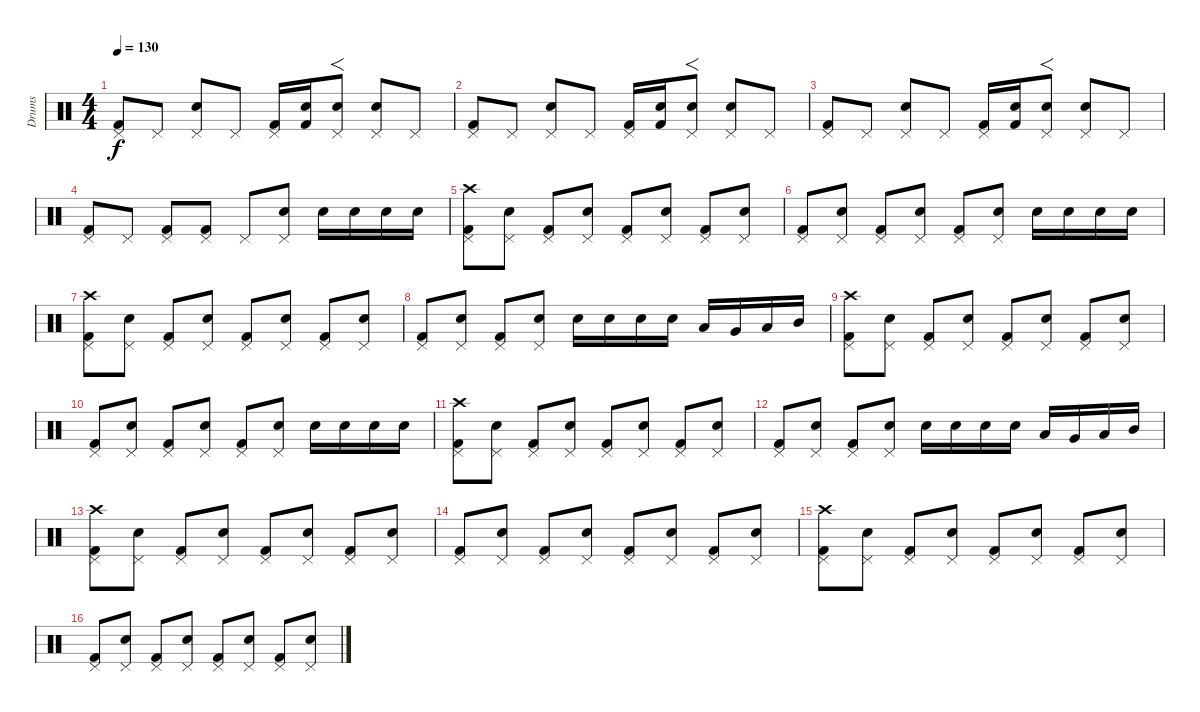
\track ("Drums" "Drums") {instrument percussion}
\staff {score}
\articulation defaults
\ts (4 4)
\tempo 130
\clef neutral
\ks c
("Kick (hit) 2" "Pedal Hi-Hat (hit)").8{dy f} "Pedal Hi-Hat (hit)".8 ("Electric Snare (hit)" "Pedal Hi-Hat (hit)").8 "Pedal Hi-Hat (hit)".8 ("Kick (hit) 2" "Pedal Hi-Hat (hit)").16 ("Kick (hit) 2" "Electric Snare (hit)").16 ("Electric Snare (hit)" "Pedal Hi-Hat (hit)").8{f} ("Electric Snare (hit)" "Pedal Hi-Hat (hit)").8 "Pedal Hi-Hat (hit)".8 |
("Kick (hit) 2" "Pedal Hi-Hat (hit)").8 "Pedal Hi-Hat (hit)".8 ("Electric Snare (hit)" "Pedal Hi-Hat (hit)").8 "Pedal Hi-Hat (hit)".8 ("Kick (hit) 2" "Pedal Hi-Hat (hit)").16 ("Kick (hit) 2" "Electric Snare (hit)").16 ("Electric Snare (hit)" "Pedal Hi-Hat (hit)").8{f} ("Electric Snare (hit)" "Pedal Hi-Hat (hit)").8 "Pedal Hi-Hat (hit)".8 |
("Kick (hit) 2" "Pedal Hi-Hat (hit)").8 "Pedal Hi-Hat (hit)".8 ("Electric Snare (hit)" "Pedal Hi-Hat (hit)").8 "Pedal Hi-Hat (hit)".8 ("Kick (hit) 2" "Pedal Hi-Hat (hit)").16 ("Kick (hit) 2" "Electric Snare (hit)").16 ("Electric Snare (hit)" "Pedal Hi-Hat (hit)").8{f} ("Electric Snare (hit)" "Pedal Hi-Hat (hit)").8 "Pedal Hi-Hat (hit)".8 |
("Kick (hit) 2" "Pedal Hi-Hat (hit)").8 "Pedal Hi-Hat (hit)".8 ("Kick (hit) 2" "Pedal Hi-Hat (hit)").8 ("Kick (hit) 2" "Pedal Hi-Hat (hit)").8 "Pedal Hi-Hat (hit)".8 ("Electric Snare (hit)" "Pedal Hi-Hat (hit)").8 "Electric Snare (hit)".16 "Electric Snare (hit)".16 "Electric Snare (hit)".16 "Electric Snare (hit)".16 |
("Kick (hit) 2" "Pedal Hi-Hat (hit)" "Crash high (hit)").8 ("Electric Snare (hit)" "Pedal Hi-Hat (hit)").8 ("Kick (hit) 2" "Pedal Hi-Hat (hit)").8 ("Electric Snare (hit)" "Pedal Hi-Hat (hit)").8 ("Kick (hit) 2" "Pedal Hi-Hat (hit)").8 ("Electric Snare (hit)" "Pedal Hi-Hat (hit)").8 ("Kick (hit) 2" "Pedal Hi-Hat (hit)").8 ("Electric Snare (hit)" "Pedal Hi-Hat (hit)").8 |
("Kick (hit) 2" "Pedal Hi-Hat (hit)").8 ("Electric Snare (hit)" "Pedal Hi-Hat (hit)").8 ("Kick (hit) 2" "Pedal Hi-Hat (hit)").8 ("Electric Snare (hit)" "Pedal Hi-Hat (hit)").8 ("Kick (hit) 2" "Pedal Hi-Hat (hit)").8 ("Electric Snare (hit)" "Pedal Hi-Hat (hit)").8 "Electric Snare (hit)".16 "Electric Snare (hit)".16 "Electric Snare (hit)".16 "Electric Snare (hit)".16 |
("Kick (hit) 2" "Pedal Hi-Hat (hit)" "Crash high (hit)").8 ("Electric Snare (hit)" "Pedal Hi-Hat (hit)").8 ("Kick (hit) 2" "Pedal Hi-Hat (hit)").8 ("Electric Snare (hit)" "Pedal Hi-Hat (hit)").8 ("Kick (hit) 2" "Pedal Hi-Hat (hit)").8 ("Electric Snare (hit)" "Pedal Hi-Hat (hit)").8 ("Kick (hit) 2" "Pedal Hi-Hat (hit)").8 ("Electric Snare (hit)" "Pedal Hi-Hat (hit)").8 |
("Kick (hit) 2" "Pedal Hi-Hat (hit)").8 ("Electric Snare (hit)" "Pedal Hi-Hat (hit)").8 ("Kick (hit) 2" "Pedal Hi-Hat (hit)").8 ("Electric Snare (hit)" "Pedal Hi-Hat (hit)").8 "Electric Snare (hit)".16 "Electric Snare (hit)".16 "Electric Snare (hit)".16 "Electric Snare (hit)".16 "Low Floor Tom (hit)".16 "Very Low Tom (hit)".16 "Low Tom (hit)".16 "Mid Tom (hit)".16 |
("Kick (hit) 2" "Pedal Hi-Hat (hit)" "Crash high (hit)").8 ("Electric Snare (hit)" "Pedal Hi-Hat (hit)").8 ("Kick (hit) 2" "Pedal Hi-Hat (hit)").8 ("Electric Snare (hit)" "Pedal Hi-Hat (hit)").8 ("Kick (hit) 2" "Pedal Hi-Hat (hit)").8 ("Electric Snare (hit)" "Pedal Hi-Hat (hit)").8 ("Kick (hit) 2" "Pedal Hi-Hat (hit)").8 ("Electric Snare (hit)" "Pedal Hi-Hat (hit)").8 |
("Kick (hit) 2" "Pedal Hi-Hat (hit)").8 ("Electric Snare (hit)" "Pedal Hi-Hat (hit)").8 ("Kick (hit) 2" "Pedal Hi-Hat (hit)").8 ("Electric Snare (hit)" "Pedal Hi-Hat (hit)").8 ("Kick (hit) 2" "Pedal Hi-Hat (hit)").8 ("Electric Snare (hit)" "Pedal Hi-Hat (hit)").8 "Electric Snare (hit)".16 "Electric Snare (hit)".16 "Electric Snare (hit)".16 "Electric Snare (hit)".16 |
("Kick (hit) 2" "Pedal Hi-Hat (hit)" "Crash high (hit)").8 ("Electric Snare (hit)" "Pedal Hi-Hat (hit)").8 ("Kick (hit) 2" "Pedal Hi-Hat (hit)").8 ("Electric Snare (hit)" "Pedal Hi-Hat (hit)").8 ("Kick (hit) 2" "Pedal Hi-Hat (hit)").8 ("Electric Snare (hit)" "Pedal Hi-Hat (hit)").8 ("Kick (hit) 2" "Pedal Hi-Hat (hit)").8 ("Electric Snare (hit)" "Pedal Hi-Hat (hit)").8 |
("Kick (hit) 2" "Pedal Hi-Hat (hit)").8 ("Electric Snare (hit)" "Pedal Hi-Hat (hit)").8 ("Kick (hit) 2" "Pedal Hi-Hat (hit)").8 ("Electric Snare (hit)" "Pedal Hi-Hat (hit)").8 "Electric Snare (hit)".16 "Electric Snare (hit)".16 "Electric Snare (hit)".16 "Electric Snare (hit)".16 "Low Floor Tom (hit)".16 "Very Low Tom (hit)".16 "Low Tom (hit)".16 "Mid Tom (hit)".16 |
("Kick (hit) 2" "Pedal Hi-Hat (hit)" "Crash high (hit)").8 ("Electric Snare (hit)" "Pedal Hi-Hat (hit)").8 ("Kick (hit) 2" "Pedal Hi-Hat (hit)").8 ("Electric Snare (hit)" "Pedal Hi-Hat (hit)").8 ("Kick (hit) 2" "Pedal Hi-Hat (hit)").8 ("Electric Snare (hit)" "Pedal Hi-Hat (hit)").8 ("Kick (hit) 2" "Pedal Hi-Hat (hit)").8 ("Electric Snare (hit)" "Pedal Hi-Hat (hit)").8 |
("Kick (hit) 2" "Pedal Hi-Hat (hit)").8 ("Electric Snare (hit)" "Pedal Hi-Hat (hit)").8 ("Kick (hit) 2" "Pedal Hi-Hat (hit)").8 ("Electric Snare (hit)" "Pedal Hi-Hat (hit)").8 ("Kick (hit) 2" "Pedal Hi-Hat (hit)").8 ("Electric Snare (hit)" "Pedal Hi-Hat (hit)").8 ("Kick (hit) 2" "Pedal Hi-Hat (hit)").8 ("Electric Snare (hit)" "Pedal Hi-Hat (hit)").8 |
("Kick (hit) 2" "Pedal Hi-Hat (hit)" "Crash high (hit)").8 ("Electric Snare (hit)" "Pedal Hi-Hat (hit)").8 ("Kick (hit) 2" "Pedal Hi-Hat (hit)").8 ("Electric Snare (hit)" "Pedal Hi-Hat (hit)").8 ("Kick (hit) 2" "Pedal Hi-Hat (hit)").8 ("Electric Snare (hit)" "Pedal Hi-Hat (hit)").8 ("Kick (hit) 2" "Pedal Hi-Hat (hit)").8 ("Electric Snare (hit)" "Pedal Hi-Hat (hit)").8 |
("Kick (hit) 2" "Pedal Hi-Hat (hit)").8 ("Electric Snare (hit)" "Pedal Hi-Hat (hit)").8 ("Kick (hit) 2" "Pedal Hi-Hat (hit)").8 ("Electric Snare (hit)" "Pedal Hi-Hat (hit)").8 ("Kick (hit) 2" "Pedal Hi-Hat (hit)").8 ("Electric Snare (hit)" "Pedal Hi-Hat (hit)").8 ("Kick (hit) 2" "Pedal Hi-Hat (hit)").8 ("Electric Snare (hit)" "Pedal Hi-Hat (hit)").8
